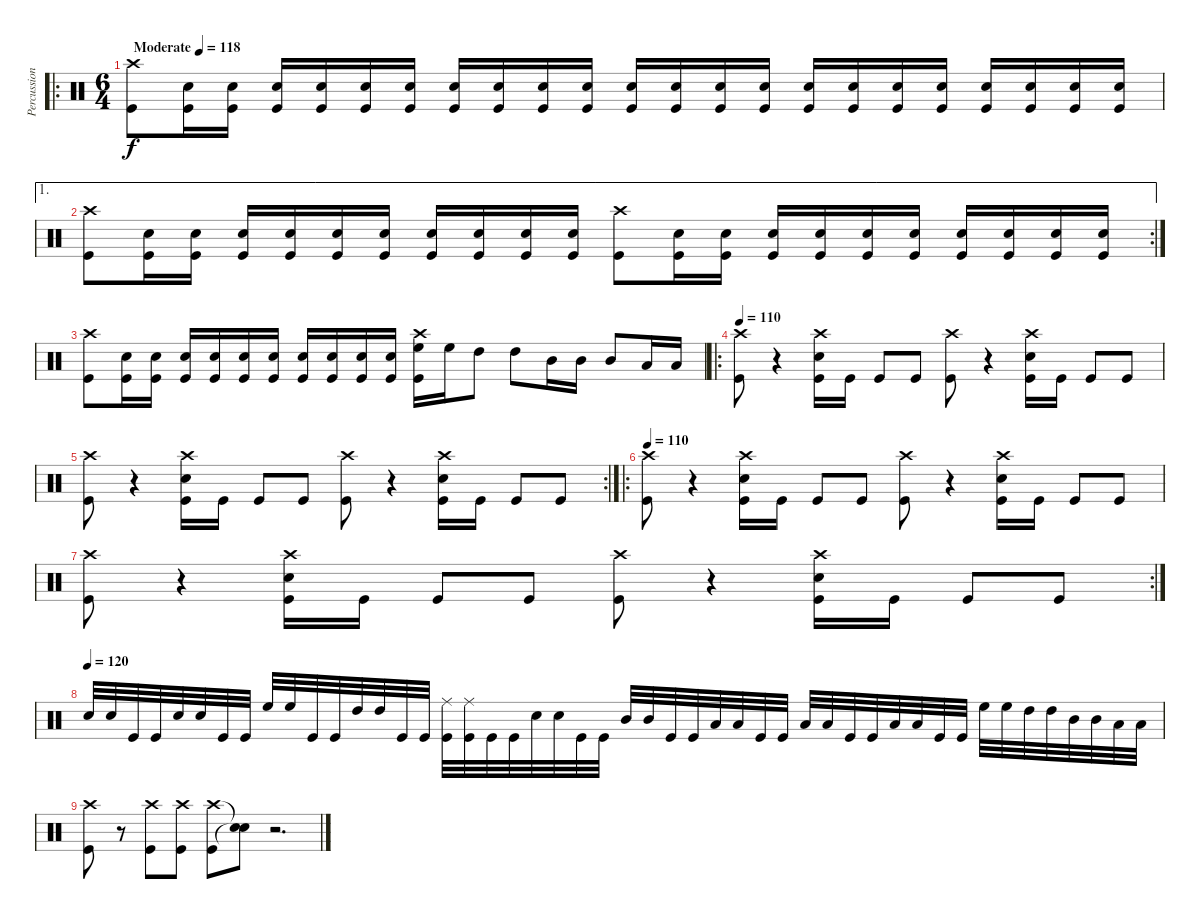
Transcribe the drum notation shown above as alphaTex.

\track ("Percussion" "Percussion") {instrument percussion}
\staff {score}
\articulation defaults
\ro
\ts (6 4)
\tempo (118 "Moderate")
\clef neutral
\ks c
("Crash high (hit)" "Kick (hit)").8{dy f} ("Snare (hit) 2" "Kick (hit)").16 ("Snare (hit) 2" "Kick (hit)").16 ("Snare (hit) 2" "Kick (hit)").16 ("Snare (hit) 2" "Kick (hit)").16 ("Snare (hit) 2" "Kick (hit)").16 ("Snare (hit) 2" "Kick (hit)").16 ("Snare (hit) 2" "Kick (hit)").16 ("Snare (hit) 2" "Kick (hit)").16 ("Snare (hit) 2" "Kick (hit)").16 ("Snare (hit) 2" "Kick (hit)").16 ("Snare (hit) 2" "Kick (hit)").16 ("Snare (hit) 2" "Kick (hit)").16 ("Snare (hit) 2" "Kick (hit)").16 ("Snare (hit) 2" "Kick (hit)").16 ("Snare (hit) 2" "Kick (hit)").16 ("Snare (hit) 2" "Kick (hit)").16 ("Snare (hit) 2" "Kick (hit)").16 ("Snare (hit) 2" "Kick (hit)").16 ("Snare (hit) 2" "Kick (hit)").16 ("Snare (hit) 2" "Kick (hit)").16 ("Snare (hit) 2" "Kick (hit)").16 ("Snare (hit) 2" "Kick (hit)").16 |
\ae 1
\rc 2
("Crash high (hit)" "Kick (hit)").8 ("Snare (hit) 2" "Kick (hit)").16 ("Snare (hit) 2" "Kick (hit)").16 ("Snare (hit) 2" "Kick (hit)").16 ("Snare (hit) 2" "Kick (hit)").16 ("Snare (hit) 2" "Kick (hit)").16 ("Snare (hit) 2" "Kick (hit)").16 ("Snare (hit) 2" "Kick (hit)").16 ("Snare (hit) 2" "Kick (hit)").16 ("Snare (hit) 2" "Kick (hit)").16 ("Snare (hit) 2" "Kick (hit)").16 ("Crash high (hit)" "Kick (hit)").8 ("Snare (hit) 2" "Kick (hit)").16 ("Snare (hit) 2" "Kick (hit)").16 ("Snare (hit) 2" "Kick (hit)").16 ("Snare (hit) 2" "Kick (hit)").16 ("Snare (hit) 2" "Kick (hit)").16 ("Snare (hit) 2" "Kick (hit)").16 ("Snare (hit) 2" "Kick (hit)").16 ("Snare (hit) 2" "Kick (hit)").16 ("Snare (hit) 2" "Kick (hit)").16 ("Snare (hit) 2" "Kick (hit)").16 |
("Crash high (hit)" "Kick (hit)").8 ("Snare (hit) 2" "Kick (hit)").16 ("Snare (hit) 2" "Kick (hit)").16 ("Snare (hit) 2" "Kick (hit)").16 ("Snare (hit) 2" "Kick (hit)").16 ("Snare (hit) 2" "Kick (hit)").16 ("Snare (hit) 2" "Kick (hit)").16 ("Snare (hit) 2" "Kick (hit)").16 ("Snare (hit) 2" "Kick (hit)").16 ("Snare (hit) 2" "Kick (hit)").16 ("Snare (hit) 2" "Kick (hit)").16 ("Crash high (hit)" "High Floor Tom (hit)" "Kick (hit)").16 "High Floor Tom (hit)".16 "High Tom (hit)".8 "High Tom (hit)".8 "Mid Tom (hit)".16 "Mid Tom (hit)".16 "Mid Tom (hit)".8 "Low Tom (hit)".16 "Low Tom (hit)".16 |
\ro
\tempo 110
("Crash high (hit)" "Kick (hit)").8 r.4 ("Crash high (hit)" "Snare (hit) 2" "Kick (hit)").16 "Kick (hit)".16 "Kick (hit)".8 "Kick (hit)".8 ("Crash high (hit)" "Kick (hit)").8 r.4 ("Crash high (hit)" "Snare (hit) 2" "Kick (hit)").16 "Kick (hit)".16 "Kick (hit)".8 "Kick (hit)".8 |
\rc 2
("Crash high (hit)" "Kick (hit)").8 r.4 ("Crash high (hit)" "Snare (hit) 2" "Kick (hit)").16 "Kick (hit)".16 "Kick (hit)".8 "Kick (hit)".8 ("Crash high (hit)" "Kick (hit)").8 r.4 ("Crash high (hit)" "Snare (hit) 2" "Kick (hit)").16 "Kick (hit)".16 "Kick (hit)".8 "Kick (hit)".8 |
\ro
\tempo 110
("Crash high (hit)" "Kick (hit)").8 r.4 ("Crash high (hit)" "Snare (hit) 2" "Kick (hit)").16 "Kick (hit)".16 "Kick (hit)".8 "Kick (hit)".8 ("Crash high (hit)" "Kick (hit)").8 r.4 ("Crash high (hit)" "Snare (hit) 2" "Kick (hit)").16 "Kick (hit)".16 "Kick (hit)".8 "Kick (hit)".8 |
\rc 2
("Crash high (hit)" "Kick (hit)").8 r.4 ("Crash high (hit)" "Snare (hit) 2" "Kick (hit)").16 "Kick (hit)".16 "Kick (hit)".8 "Kick (hit)".8 ("Crash high (hit)" "Kick (hit)").8 r.4 ("Crash high (hit)" "Snare (hit) 2" "Kick (hit)").16 "Kick (hit)".16 "Kick (hit)".8 "Kick (hit)".8 |
\tempo (120)
"Snare (hit) 2".32 "Snare (hit) 2".32 "Kick (hit)".32 "Kick (hit)".32 "Snare (hit) 2".32 "Snare (hit) 2".32 "Kick (hit)".32 "Kick (hit)".32 "High Floor Tom (hit)".32 "High Floor Tom (hit)".32 "Kick (hit)".32 "Kick (hit)".32 "High Tom (hit)".32 "High Tom (hit)".32 "Kick (hit)".32 "Kick (hit)".32 ("Ride (middle)" "Kick (hit)").32 ("Ride (middle)" "Kick (hit)").32 "Kick (hit)".32 "Kick (hit)".32 "Snare (hit) 2".32 "Snare (hit) 2".32 "Kick (hit)".32 "Kick (hit)".32 "Mid Tom (hit)".32 "Mid Tom (hit)".32 "Kick (hit)".32 "Kick (hit)".32 "Low Tom (hit)".32 "Low Tom (hit)".32 "Kick (hit)".32 "Kick (hit)".32 "Low Floor Tom (hit)".32 "Low Floor Tom (hit)".32 "Kick (hit)".32 "Kick (hit)".32 "Low Floor Tom (hit)".32 "Low Floor Tom (hit)".32 "Kick (hit)".32 "Kick (hit)".32 "High Floor Tom (hit)".32 "High Floor Tom (hit)".32 "High Tom (hit)".32 "High Tom (hit)".32 "Mid Tom (hit)".32 "Mid Tom (hit)".32 "Low Tom (hit)".32 "Low Tom (hit)".32 |
("Crash high (hit)" "Kick (hit)").8 r.8 ("Crash high (hit)" "Kick (hit)").8 ("Crash high (hit)" "Kick (hit)").8 ("Crash high (hit)" "Kick (hit)").8 ("Snare (hit)"{t} "Snare (hit)"{t}).8 r.2{d}
